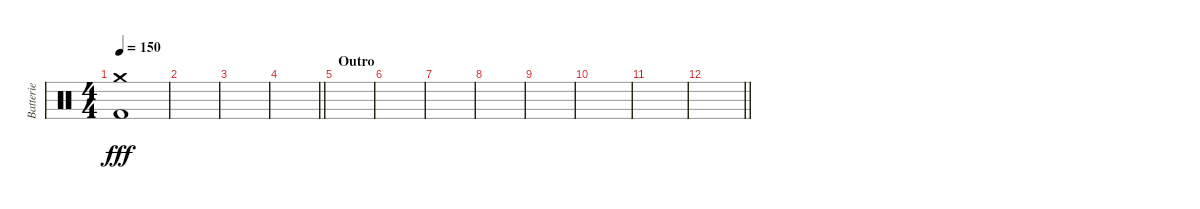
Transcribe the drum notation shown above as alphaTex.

\track ("Batterie" "Batterie") {instrument percussion}
\staff {score}
\articulation defaults
\ts (4 4)
\tempo 150
\clef neutral
\ks c
("Crash medium (hit)" "Kick (hit) 2").1{dy fff} |
|
|
\barLineRight lightlight
|
\section ("" "Outro")
|
|
|
|
|
|
|
\barLineRight lightlight
